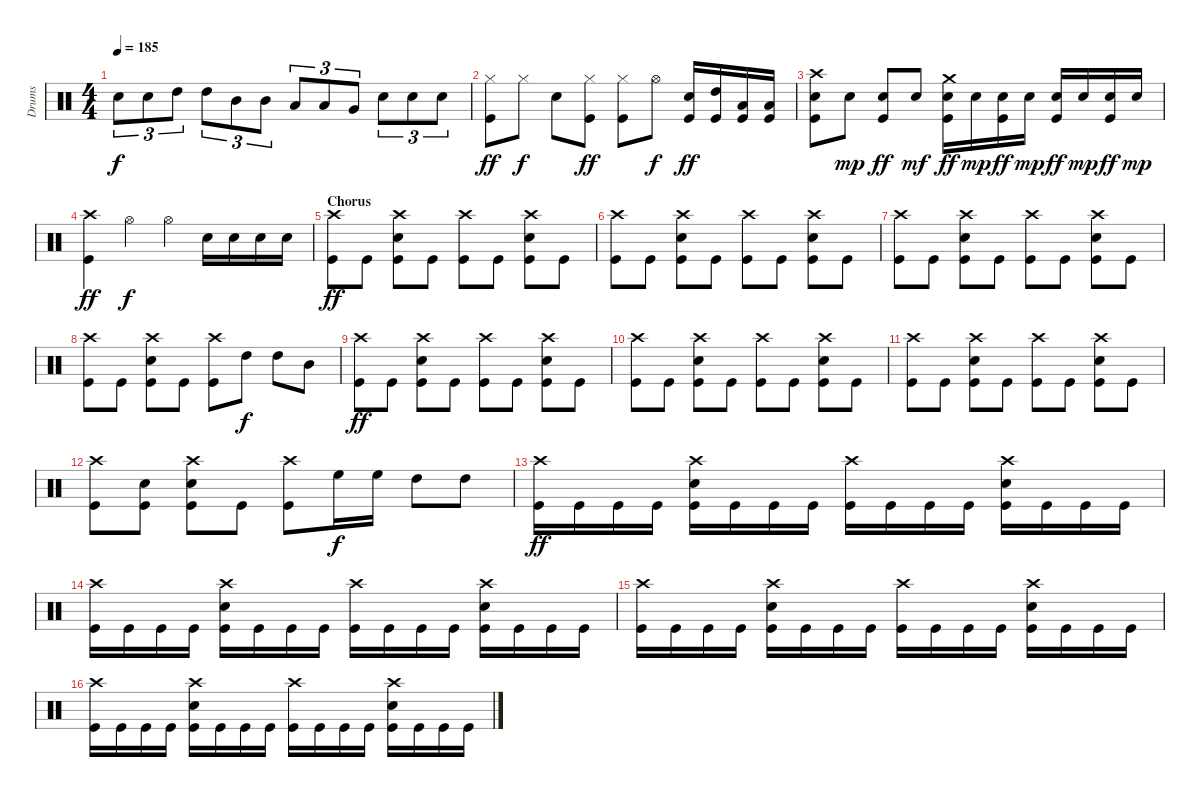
\track ("Drums" "Drums") {instrument percussion}
\staff {score}
\articulation defaults
\ts (4 4)
\tempo 185
\clef neutral
\ks c "Snare (hit) 2".8{tu (3 2) dy f} "Snare (hit) 2".8{tu (3 2)} "High Tom (hit)".8{tu (3 2)} "High Tom (hit)".8{tu (3 2)} "Mid Tom (hit)".8{tu (3 2)} "Mid Tom (hit)".8{tu (3 2)} "Low Tom (hit)".8{tu (3 2)} "Low Tom (hit)".8{tu (3 2)} "Very Low Tom (hit)".8{tu (3 2)} "Snare (hit) 2".8{tu (3 2)} "Snare (hit) 2".8{tu (3 2)} "Snare (hit) 2".8{tu (3 2)}
|
("Hi-Hat (closed)" "Kick (hit)").8{dy ff} "Hi-Hat (closed)".8{dy f} "Snare (hit) 2".8 ("Hi-Hat (closed)" "Kick (hit)").8{dy ff} ("Hi-Hat (closed)" "Kick (hit)").8 "Hi-Hat (open)".8{dy f} ("Snare (hit) 2" "Kick (hit)").16{dy ff} ("High Tom (hit)" "Kick (hit)").16 ("Low Tom (hit)" "Kick (hit)").16 ("Low Floor Tom (hit)" "Kick (hit)").16 |
("Crash high (hit)" "Snare (hit) 2" "Kick (hit)").8 "Snare (hit) 2".8{dy mp} ("Snare (hit) 2" "Kick (hit)").8{dy ff} "Snare (hit) 2".8{dy mf} ("Crash medium (hit)" "Snare (hit) 2" "Kick (hit)").16{dy ff} "Snare (hit) 2".16{dy mp} ("Snare (hit) 2" "Kick (hit)").16{dy ff} "Snare (hit) 2".16{dy mp} ("Snare (hit) 2" "Kick (hit)").16{dy ff} "Snare (hit) 2".16{dy mp} ("Snare (hit) 2" "Kick (hit)").16{dy ff} "Snare (hit) 2".16{dy mp} |
("Crash high (hit)" "Kick (hit)").4{dy ff} "Hi-Hat (open)".4{dy f} "Hi-Hat (open)".4 "Snare (hit) 2".16 "Snare (hit) 2".16 "Snare (hit) 2".16 "Snare (hit) 2".16 |
\section ("" "Chorus")
("Crash high (hit)" "Kick (hit)").8{dy ff} "Kick (hit)".8 ("Crash high (hit)" "Snare (hit) 2" "Kick (hit)").8 "Kick (hit)".8 ("Crash high (hit)" "Kick (hit)").8 "Kick (hit)".8 ("Crash high (hit)" "Snare (hit) 2" "Kick (hit)").8 "Kick (hit)".8 |
("Crash high (hit)" "Kick (hit)").8 "Kick (hit)".8 ("Crash high (hit)" "Snare (hit) 2" "Kick (hit)").8 "Kick (hit)".8 ("Crash high (hit)" "Kick (hit)").8 "Kick (hit)".8 ("Crash high (hit)" "Snare (hit) 2" "Kick (hit)").8 "Kick (hit)".8 |
("Crash high (hit)" "Kick (hit)").8 "Kick (hit)".8 ("Crash high (hit)" "Snare (hit) 2" "Kick (hit)").8 "Kick (hit)".8 ("Crash high (hit)" "Kick (hit)").8 "Kick (hit)".8 ("Crash high (hit)" "Snare (hit) 2" "Kick (hit)").8 "Kick (hit)".8 |
("Crash high (hit)" "Kick (hit)").8 "Kick (hit)".8 ("Crash high (hit)" "Snare (hit) 2" "Kick (hit)").8 "Kick (hit)".8 ("Crash high (hit)" "Kick (hit)").8 "High Tom (hit)".8{dy f} "High Tom (hit)".8 "Mid Tom (hit)".8 |
("Crash high (hit)" "Kick (hit)").8{dy ff} "Kick (hit)".8 ("Crash high (hit)" "Snare (hit) 2" "Kick (hit)").8 "Kick (hit)".8 ("Crash high (hit)" "Kick (hit)").8 "Kick (hit)".8 ("Crash high (hit)" "Snare (hit) 2" "Kick (hit)").8 "Kick (hit)".8 |
("Crash high (hit)" "Kick (hit)").8 "Kick (hit)".8 ("Crash high (hit)" "Snare (hit) 2" "Kick (hit)").8 "Kick (hit)".8 ("Crash high (hit)" "Kick (hit)").8 "Kick (hit)".8 ("Crash high (hit)" "Snare (hit) 2" "Kick (hit)").8 "Kick (hit)".8 |
("Crash high (hit)" "Kick (hit)").8 "Kick (hit)".8 ("Crash high (hit)" "Snare (hit) 2" "Kick (hit)").8 "Kick (hit)".8 ("Crash high (hit)" "Kick (hit)").8 "Kick (hit)".8 ("Crash high (hit)" "Snare (hit) 2" "Kick (hit)").8 "Kick (hit)".8 |
("Crash high (hit)" "Kick (hit)").8 ("Snare (hit) 2" "Kick (hit)").8 ("Crash high (hit)" "Snare (hit) 2" "Kick (hit)").8 "Kick (hit)".8 ("Crash high (hit)" "Kick (hit)").8 "High Floor Tom (hit)".16{dy f} "High Floor Tom (hit)".16 "High Tom (hit)".8 "High Tom (hit)".8 |
("Crash high (hit)" "Kick (hit)").16{dy ff} "Kick (hit)".16 "Kick (hit)".16 "Kick (hit)".16 ("Crash high (hit)" "Snare (hit) 2" "Kick (hit)").16 "Kick (hit)".16 "Kick (hit)".16 "Kick (hit)".16 ("Crash high (hit)" "Kick (hit)").16 "Kick (hit)".16 "Kick (hit)".16 "Kick (hit)".16 ("Crash high (hit)" "Snare (hit) 2" "Kick (hit)").16 "Kick (hit)".16 "Kick (hit)".16 "Kick (hit)".16 |
("Crash high (hit)" "Kick (hit)").16 "Kick (hit)".16 "Kick (hit)".16 "Kick (hit)".16 ("Crash high (hit)" "Snare (hit) 2" "Kick (hit)").16 "Kick (hit)".16 "Kick (hit)".16 "Kick (hit)".16 ("Crash high (hit)" "Kick (hit)").16 "Kick (hit)".16 "Kick (hit)".16 "Kick (hit)".16 ("Crash high (hit)" "Snare (hit) 2" "Kick (hit)").16 "Kick (hit)".16 "Kick (hit)".16 "Kick (hit)".16 |
("Crash high (hit)" "Kick (hit)").16 "Kick (hit)".16 "Kick (hit)".16 "Kick (hit)".16 ("Crash high (hit)" "Snare (hit) 2" "Kick (hit)").16 "Kick (hit)".16 "Kick (hit)".16 "Kick (hit)".16 ("Crash high (hit)" "Kick (hit)").16 "Kick (hit)".16 "Kick (hit)".16 "Kick (hit)".16 ("Crash high (hit)" "Snare (hit) 2" "Kick (hit)").16 "Kick (hit)".16 "Kick (hit)".16 "Kick (hit)".16 |
("Crash high (hit)" "Kick (hit)").16 "Kick (hit)".16 "Kick (hit)".16 "Kick (hit)".16 ("Crash high (hit)" "Snare (hit) 2" "Kick (hit)").16 "Kick (hit)".16 "Kick (hit)".16 "Kick (hit)".16 ("Crash high (hit)" "Kick (hit)").16 "Kick (hit)".16 "Kick (hit)".16 "Kick (hit)".16 ("Crash high (hit)" "Snare (hit) 2" "Kick (hit)").16 "Kick (hit)".16 "Kick (hit)".16 "Kick (hit)".16
